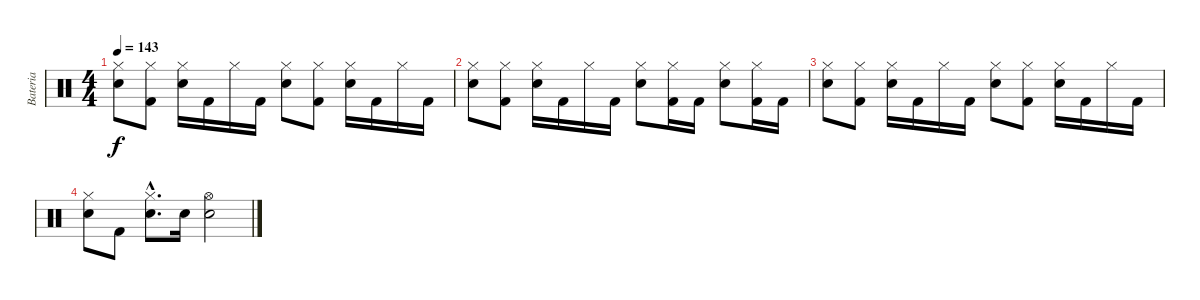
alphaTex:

\track ("Bateria" "Bateria") {instrument percussion}
\staff {score}
\articulation defaults
\ts (4 4)
\tempo 143
\clef neutral
\ks c
("Hi-Hat (closed)" "Snare (hit) 2").8{dy f} ("Hi-Hat (closed)" "Kick (hit) 2").8 ("Hi-Hat (closed)" "Snare (hit) 2").16 "Kick (hit) 2".16 "Hi-Hat (closed)".16 "Kick (hit) 2".16 ("Hi-Hat (closed)" "Snare (hit) 2").8 ("Hi-Hat (closed)" "Kick (hit) 2").8 ("Hi-Hat (closed)" "Snare (hit) 2").16 "Kick (hit) 2".16 "Hi-Hat (closed)".16 "Kick (hit) 2".16 |
("Hi-Hat (closed)" "Snare (hit) 2").8 ("Hi-Hat (closed)" "Kick (hit) 2").8 ("Hi-Hat (closed)" "Snare (hit) 2").16 "Kick (hit) 2".16 "Hi-Hat (closed)".16 "Kick (hit) 2".16 ("Hi-Hat (closed)" "Snare (hit) 2").8 ("Hi-Hat (closed)" "Kick (hit) 2").16 "Kick (hit) 2".16 ("Hi-Hat (closed)" "Snare (hit) 2").8 ("Hi-Hat (closed)" "Kick (hit) 2").16 "Kick (hit) 2".16 |
("Hi-Hat (closed)" "Snare (hit) 2").8 ("Hi-Hat (closed)" "Kick (hit) 2").8 ("Hi-Hat (closed)" "Snare (hit) 2").16 "Kick (hit) 2".16 "Hi-Hat (closed)".16 "Kick (hit) 2".16 ("Hi-Hat (closed)" "Snare (hit) 2").8 ("Hi-Hat (closed)" "Kick (hit) 2").8 ("Hi-Hat (closed)" "Snare (hit) 2").16 "Kick (hit) 2".16 "Hi-Hat (closed)".16 "Kick (hit) 2".16 |
("Hi-Hat (closed)" "Snare (hit) 2").8 "Kick (hit) 2".8 ("Hi-Hat (closed)"{hac} "Snare (hit) 2"{hac}).8{d} "Snare (hit) 2".16 ("Hi-Hat (open)" "Snare (hit) 2").2
